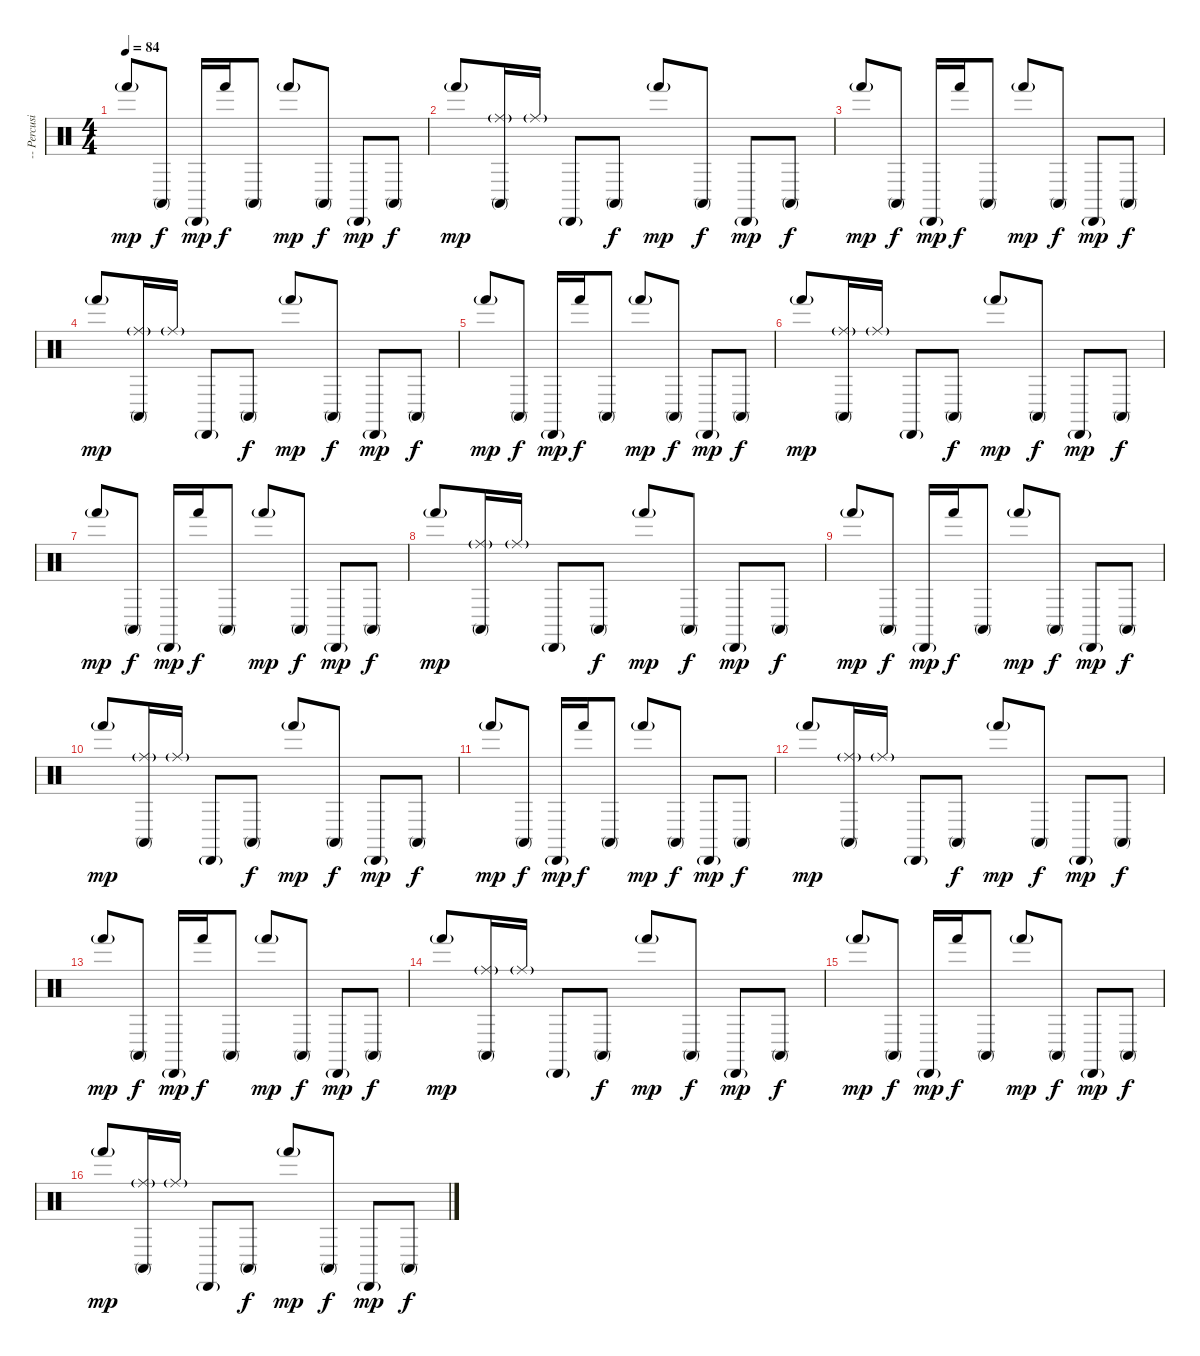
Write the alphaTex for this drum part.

\track ("-- Percusion Kit" "-- Percusi") {instrument percussion}
\staff {score}
\articulation defaults
\ts (4 4)
\tempo 84
\clef neutral
\ks c "Hand (hit)"{g}.8{dy mp} "Conga high (mute)".8{dy f} "Cabasa (hit)"{g}.16{dy mp} "Hand (hit)".16{dy f} "Conga high (mute)".8 "Hand (hit)"{g}.8{dy mp} "Conga high (mute)".8{dy f} "Cabasa (hit)"{g}.8{dy mp} "Conga high (mute)".8{dy f}
|
"Hand (hit)"{g}.8{dy mp} ("Ride (middle)"{g} "Conga high (mute)").16 "Ride (middle)"{g}.16 "Cabasa (hit)"{g}.8 "Conga high (mute)".8{dy f} "Hand (hit)"{g}.8{dy mp} "Conga high (mute)".8{dy f} "Cabasa (hit)"{g}.8{dy mp} "Conga high (mute)".8{dy f} |
"Hand (hit)"{g}.8{dy mp} "Conga high (mute)".8{dy f} "Cabasa (hit)"{g}.16{dy mp} "Hand (hit)".16{dy f} "Conga high (mute)".8 "Hand (hit)"{g}.8{dy mp} "Conga high (mute)".8{dy f} "Cabasa (hit)"{g}.8{dy mp} "Conga high (mute)".8{dy f} |
"Hand (hit)"{g}.8{dy mp} ("Ride (middle)"{g} "Conga high (mute)").16 "Ride (middle)"{g}.16 "Cabasa (hit)"{g}.8 "Conga high (mute)".8{dy f} "Hand (hit)"{g}.8{dy mp} "Conga high (mute)".8{dy f} "Cabasa (hit)"{g}.8{dy mp} "Conga high (mute)".8{dy f} |
"Hand (hit)"{g}.8{dy mp} "Conga high (mute)".8{dy f} "Cabasa (hit)"{g}.16{dy mp} "Hand (hit)".16{dy f} "Conga high (mute)".8 "Hand (hit)"{g}.8{dy mp} "Conga high (mute)".8{dy f} "Cabasa (hit)"{g}.8{dy mp} "Conga high (mute)".8{dy f} |
"Hand (hit)"{g}.8{dy mp} ("Ride (middle)"{g} "Conga high (mute)").16 "Ride (middle)"{g}.16 "Cabasa (hit)"{g}.8 "Conga high (mute)".8{dy f} "Hand (hit)"{g}.8{dy mp} "Conga high (mute)".8{dy f} "Cabasa (hit)"{g}.8{dy mp} "Conga high (mute)".8{dy f} |
"Hand (hit)"{g}.8{dy mp} "Conga high (mute)".8{dy f} "Cabasa (hit)"{g}.16{dy mp} "Hand (hit)".16{dy f} "Conga high (mute)".8 "Hand (hit)"{g}.8{dy mp} "Conga high (mute)".8{dy f} "Cabasa (hit)"{g}.8{dy mp} "Conga high (mute)".8{dy f} |
"Hand (hit)"{g}.8{dy mp} ("Ride (middle)"{g} "Conga high (mute)").16 "Ride (middle)"{g}.16 "Cabasa (hit)"{g}.8 "Conga high (mute)".8{dy f} "Hand (hit)"{g}.8{dy mp} "Conga high (mute)".8{dy f} "Cabasa (hit)"{g}.8{dy mp} "Conga high (mute)".8{dy f} |
"Hand (hit)"{g}.8{dy mp} "Conga high (mute)".8{dy f} "Cabasa (hit)"{g}.16{dy mp} "Hand (hit)".16{dy f} "Conga high (mute)".8 "Hand (hit)"{g}.8{dy mp} "Conga high (mute)".8{dy f} "Cabasa (hit)"{g}.8{dy mp} "Conga high (mute)".8{dy f} |
"Hand (hit)"{g}.8{dy mp} ("Ride (middle)"{g} "Conga high (mute)").16 "Ride (middle)"{g}.16 "Cabasa (hit)"{g}.8 "Conga high (mute)".8{dy f} "Hand (hit)"{g}.8{dy mp} "Conga high (mute)".8{dy f} "Cabasa (hit)"{g}.8{dy mp} "Conga high (mute)".8{dy f} |
"Hand (hit)"{g}.8{dy mp} "Conga high (mute)".8{dy f} "Cabasa (hit)"{g}.16{dy mp} "Hand (hit)".16{dy f} "Conga high (mute)".8 "Hand (hit)"{g}.8{dy mp} "Conga high (mute)".8{dy f} "Cabasa (hit)"{g}.8{dy mp} "Conga high (mute)".8{dy f} |
"Hand (hit)"{g}.8{dy mp} ("Ride (middle)"{g} "Conga high (mute)").16 "Ride (middle)"{g}.16 "Cabasa (hit)"{g}.8 "Conga high (mute)".8{dy f} "Hand (hit)"{g}.8{dy mp} "Conga high (mute)".8{dy f} "Cabasa (hit)"{g}.8{dy mp} "Conga high (mute)".8{dy f} |
"Hand (hit)"{g}.8{dy mp} "Conga high (mute)".8{dy f} "Cabasa (hit)"{g}.16{dy mp} "Hand (hit)".16{dy f} "Conga high (mute)".8 "Hand (hit)"{g}.8{dy mp} "Conga high (mute)".8{dy f} "Cabasa (hit)"{g}.8{dy mp} "Conga high (mute)".8{dy f} |
"Hand (hit)"{g}.8{dy mp} ("Ride (middle)"{g} "Conga high (mute)").16{volume 5} "Ride (middle)"{g}.16 "Cabasa (hit)"{g}.8 "Conga high (mute)".8{dy f} "Hand (hit)"{g}.8{dy mp} "Conga high (mute)".8{dy f} "Cabasa (hit)"{g}.8{dy mp} "Conga high (mute)".8{dy f} |
"Hand (hit)"{g}.8{dy mp} "Conga high (mute)".8{dy f} "Cabasa (hit)"{g}.16{dy mp} "Hand (hit)".16{dy f} "Conga high (mute)".8 "Hand (hit)"{g}.8{dy mp} "Conga high (mute)".8{dy f} "Cabasa (hit)"{g}.8{dy mp} "Conga high (mute)".8{dy f} |
"Hand (hit)"{g}.8{dy mp} ("Ride (middle)"{g} "Conga high (mute)").16 "Ride (middle)"{g}.16 "Cabasa (hit)"{g}.8 "Conga high (mute)".8{dy f} "Hand (hit)"{g}.8{dy mp} "Conga high (mute)".8{dy f} "Cabasa (hit)"{g}.8{dy mp} "Conga high (mute)".8{dy f}
